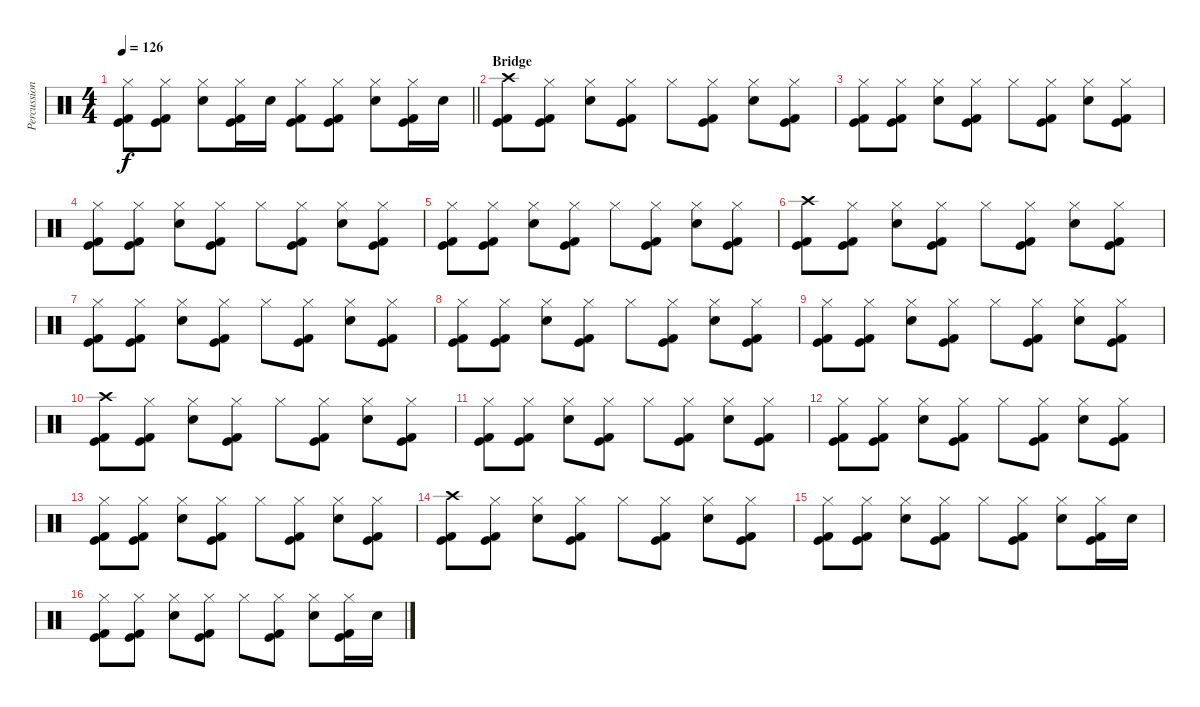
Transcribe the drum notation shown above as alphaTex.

\track ("Percussion" "Percussion") {instrument percussion}
\staff {score}
\articulation defaults
\ts (4 4)
\tempo 126
\clef neutral
\barLineRight lightlight
\ks c
("Hi-Hat (closed)" "Kick (hit)" "Kick (hit) 2").8{dy f} ("Hi-Hat (closed)" "Kick (hit)" "Kick (hit) 2").8 ("Hi-Hat (closed)" "Electric Snare (hit)").8 ("Hi-Hat (closed)" "Kick (hit)" "Kick (hit) 2").16 "Electric Snare (hit)".16 ("Hi-Hat (closed)" "Kick (hit)" "Kick (hit) 2").8 ("Hi-Hat (closed)" "Kick (hit)" "Kick (hit) 2").8 ("Hi-Hat (closed)" "Electric Snare (hit)").8 ("Hi-Hat (closed)" "Kick (hit)" "Kick (hit) 2").16 "Electric Snare (hit)".16 |
\section ("" "Bridge")
("Crash high (hit)" "Kick (hit)" "Kick (hit) 2").8 ("Hi-Hat (closed)" "Kick (hit)" "Kick (hit) 2").8 ("Hi-Hat (closed)" "Electric Snare (hit)").8 ("Hi-Hat (closed)" "Kick (hit)" "Kick (hit) 2").8 "Hi-Hat (closed)".8 ("Hi-Hat (closed)" "Kick (hit)" "Kick (hit) 2").8 ("Hi-Hat (closed)" "Electric Snare (hit)").8 ("Hi-Hat (closed)" "Kick (hit)" "Kick (hit) 2").8 |
("Hi-Hat (closed)" "Kick (hit)" "Kick (hit) 2").8 ("Hi-Hat (closed)" "Kick (hit)" "Kick (hit) 2").8 ("Hi-Hat (closed)" "Electric Snare (hit)").8 ("Hi-Hat (closed)" "Kick (hit)" "Kick (hit) 2").8 "Hi-Hat (closed)".8 ("Hi-Hat (closed)" "Kick (hit)" "Kick (hit) 2").8 ("Hi-Hat (closed)" "Electric Snare (hit)").8 ("Hi-Hat (closed)" "Kick (hit)" "Kick (hit) 2").8 |
("Hi-Hat (closed)" "Kick (hit)" "Kick (hit) 2").8 ("Hi-Hat (closed)" "Kick (hit)" "Kick (hit) 2").8 ("Hi-Hat (closed)" "Electric Snare (hit)").8 ("Hi-Hat (closed)" "Kick (hit)" "Kick (hit) 2").8 "Hi-Hat (closed)".8 ("Hi-Hat (closed)" "Kick (hit)" "Kick (hit) 2").8 ("Hi-Hat (closed)" "Electric Snare (hit)").8 ("Hi-Hat (closed)" "Kick (hit)" "Kick (hit) 2").8 |
("Hi-Hat (closed)" "Kick (hit)" "Kick (hit) 2").8 ("Hi-Hat (closed)" "Kick (hit)" "Kick (hit) 2").8 ("Hi-Hat (closed)" "Electric Snare (hit)").8 ("Hi-Hat (closed)" "Kick (hit)" "Kick (hit) 2").8 "Hi-Hat (closed)".8 ("Hi-Hat (closed)" "Kick (hit)" "Kick (hit) 2").8 ("Hi-Hat (closed)" "Electric Snare (hit)").8 ("Hi-Hat (closed)" "Kick (hit)" "Kick (hit) 2").8 |
("Crash high (hit)" "Kick (hit)" "Kick (hit) 2").8 ("Hi-Hat (closed)" "Kick (hit)" "Kick (hit) 2").8 ("Hi-Hat (closed)" "Electric Snare (hit)").8 ("Hi-Hat (closed)" "Kick (hit)" "Kick (hit) 2").8 "Hi-Hat (closed)".8 ("Hi-Hat (closed)" "Kick (hit)" "Kick (hit) 2").8 ("Hi-Hat (closed)" "Electric Snare (hit)").8 ("Hi-Hat (closed)" "Kick (hit)" "Kick (hit) 2").8 |
("Hi-Hat (closed)" "Kick (hit)" "Kick (hit) 2").8 ("Hi-Hat (closed)" "Kick (hit)" "Kick (hit) 2").8 ("Hi-Hat (closed)" "Electric Snare (hit)").8 ("Hi-Hat (closed)" "Kick (hit)" "Kick (hit) 2").8 "Hi-Hat (closed)".8 ("Hi-Hat (closed)" "Kick (hit)" "Kick (hit) 2").8 ("Hi-Hat (closed)" "Electric Snare (hit)").8 ("Hi-Hat (closed)" "Kick (hit)" "Kick (hit) 2").8 |
("Hi-Hat (closed)" "Kick (hit)" "Kick (hit) 2").8 ("Hi-Hat (closed)" "Kick (hit)" "Kick (hit) 2").8 ("Hi-Hat (closed)" "Electric Snare (hit)").8 ("Hi-Hat (closed)" "Kick (hit)" "Kick (hit) 2").8 "Hi-Hat (closed)".8 ("Hi-Hat (closed)" "Kick (hit)" "Kick (hit) 2").8 ("Hi-Hat (closed)" "Electric Snare (hit)").8 ("Hi-Hat (closed)" "Kick (hit)" "Kick (hit) 2").8 |
("Hi-Hat (closed)" "Kick (hit)" "Kick (hit) 2").8 ("Hi-Hat (closed)" "Kick (hit)" "Kick (hit) 2").8 ("Hi-Hat (closed)" "Electric Snare (hit)").8 ("Hi-Hat (closed)" "Kick (hit)" "Kick (hit) 2").8 "Hi-Hat (closed)".8 ("Hi-Hat (closed)" "Kick (hit)" "Kick (hit) 2").8 ("Hi-Hat (closed)" "Electric Snare (hit)").8 ("Hi-Hat (closed)" "Kick (hit)" "Kick (hit) 2").8 |
("Crash high (hit)" "Kick (hit)" "Kick (hit) 2").8 ("Hi-Hat (closed)" "Kick (hit)" "Kick (hit) 2").8 ("Hi-Hat (closed)" "Electric Snare (hit)").8 ("Hi-Hat (closed)" "Kick (hit)" "Kick (hit) 2").8 "Hi-Hat (closed)".8 ("Hi-Hat (closed)" "Kick (hit)" "Kick (hit) 2").8 ("Hi-Hat (closed)" "Electric Snare (hit)").8 ("Hi-Hat (closed)" "Kick (hit)" "Kick (hit) 2").8 |
("Hi-Hat (closed)" "Kick (hit)" "Kick (hit) 2").8 ("Hi-Hat (closed)" "Kick (hit)" "Kick (hit) 2").8 ("Hi-Hat (closed)" "Electric Snare (hit)").8 ("Hi-Hat (closed)" "Kick (hit)" "Kick (hit) 2").8 "Hi-Hat (closed)".8 ("Hi-Hat (closed)" "Kick (hit)" "Kick (hit) 2").8 ("Hi-Hat (closed)" "Electric Snare (hit)").8 ("Hi-Hat (closed)" "Kick (hit)" "Kick (hit) 2").8 |
("Hi-Hat (closed)" "Kick (hit)" "Kick (hit) 2").8 ("Hi-Hat (closed)" "Kick (hit)" "Kick (hit) 2").8 ("Hi-Hat (closed)" "Electric Snare (hit)").8 ("Hi-Hat (closed)" "Kick (hit)" "Kick (hit) 2").8 "Hi-Hat (closed)".8 ("Hi-Hat (closed)" "Kick (hit)" "Kick (hit) 2").8 ("Hi-Hat (closed)" "Electric Snare (hit)").8 ("Hi-Hat (closed)" "Kick (hit)" "Kick (hit) 2").8 |
("Hi-Hat (closed)" "Kick (hit)" "Kick (hit) 2").8 ("Hi-Hat (closed)" "Kick (hit)" "Kick (hit) 2").8 ("Hi-Hat (closed)" "Electric Snare (hit)").8 ("Hi-Hat (closed)" "Kick (hit)" "Kick (hit) 2").8 "Hi-Hat (closed)".8 ("Hi-Hat (closed)" "Kick (hit)" "Kick (hit) 2").8 ("Hi-Hat (closed)" "Electric Snare (hit)").8 ("Hi-Hat (closed)" "Kick (hit)" "Kick (hit) 2").8 |
("Crash high (hit)" "Kick (hit)" "Kick (hit) 2").8 ("Hi-Hat (closed)" "Kick (hit)" "Kick (hit) 2").8 ("Hi-Hat (closed)" "Electric Snare (hit)").8 ("Hi-Hat (closed)" "Kick (hit)" "Kick (hit) 2").8 "Hi-Hat (closed)".8 ("Hi-Hat (closed)" "Kick (hit)" "Kick (hit) 2").8 ("Hi-Hat (closed)" "Electric Snare (hit)").8 ("Hi-Hat (closed)" "Kick (hit)" "Kick (hit) 2").8 |
("Hi-Hat (closed)" "Kick (hit)" "Kick (hit) 2").8 ("Hi-Hat (closed)" "Kick (hit)" "Kick (hit) 2").8 ("Hi-Hat (closed)" "Electric Snare (hit)").8 ("Hi-Hat (closed)" "Kick (hit)" "Kick (hit) 2").8 "Hi-Hat (closed)".8 ("Hi-Hat (closed)" "Kick (hit)" "Kick (hit) 2").8 ("Hi-Hat (closed)" "Electric Snare (hit)").8 ("Hi-Hat (closed)" "Kick (hit)" "Kick (hit) 2").16 "Electric Snare (hit)".16 |
("Hi-Hat (closed)" "Kick (hit)" "Kick (hit) 2").8 ("Hi-Hat (closed)" "Kick (hit)" "Kick (hit) 2").8 ("Hi-Hat (closed)" "Electric Snare (hit)").8 ("Hi-Hat (closed)" "Kick (hit)" "Kick (hit) 2").8 "Hi-Hat (closed)".8 ("Hi-Hat (closed)" "Kick (hit)" "Kick (hit) 2").8 ("Hi-Hat (closed)" "Electric Snare (hit)").8 ("Hi-Hat (closed)" "Kick (hit)" "Kick (hit) 2").16 "Electric Snare (hit)".16
